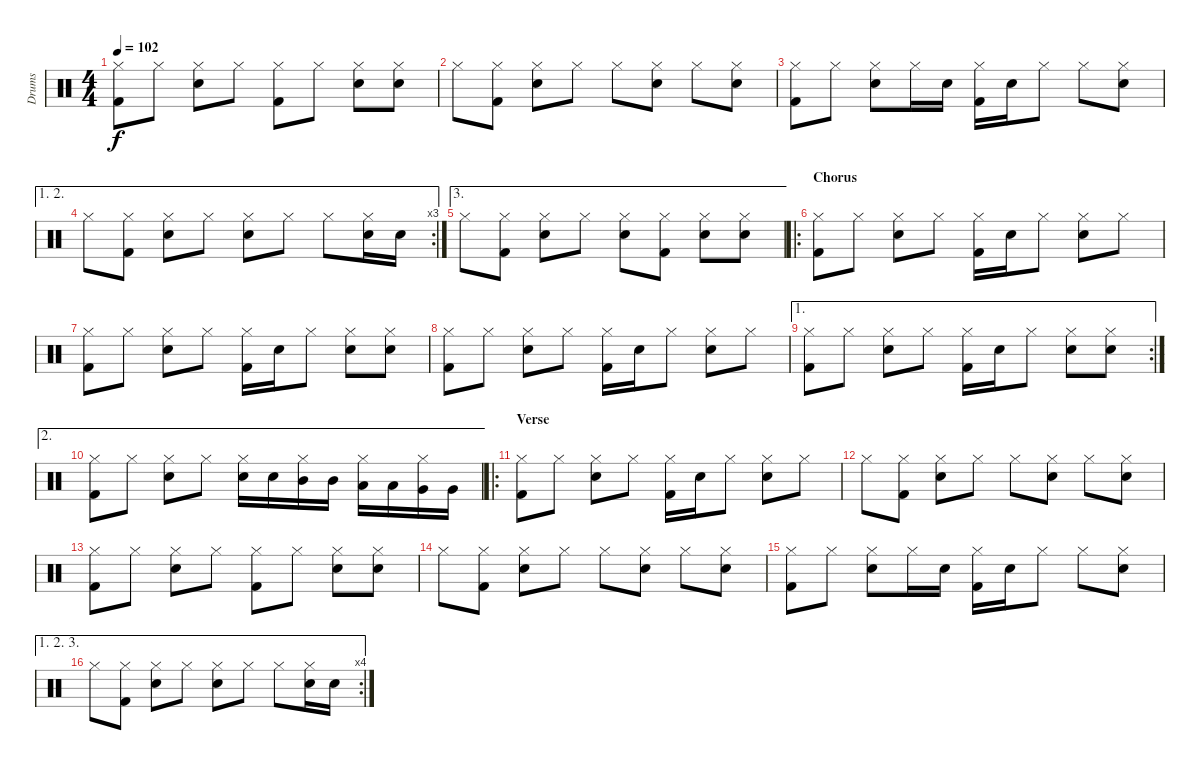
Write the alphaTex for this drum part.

\track ("Drums" "Drums") {instrument percussion}
\staff {score}
\articulation defaults
\ts (4 4)
\tempo 102
\clef neutral
\ks c
("Hi-Hat (closed)" "Kick (hit) 2").8{dy f} "Hi-Hat (closed)".8 ("Hi-Hat (closed)" "Electric Snare (hit)").8 "Hi-Hat (closed)".8 ("Hi-Hat (closed)" "Kick (hit) 2").8 "Hi-Hat (closed)".8 ("Hi-Hat (closed)" "Electric Snare (hit)").8 ("Hi-Hat (closed)" "Electric Snare (hit)").8 |
"Hi-Hat (closed)".8 ("Hi-Hat (closed)" "Kick (hit) 2").8 ("Hi-Hat (closed)" "Electric Snare (hit)").8 "Hi-Hat (closed)".8 "Hi-Hat (closed)".8 ("Hi-Hat (closed)" "Electric Snare (hit)").8 "Hi-Hat (closed)".8 ("Hi-Hat (closed)" "Electric Snare (hit)").8 |
("Hi-Hat (closed)" "Kick (hit) 2").8 "Hi-Hat (closed)".8 ("Hi-Hat (closed)" "Electric Snare (hit)").8 "Hi-Hat (closed)".16 "Electric Snare (hit)".16 ("Hi-Hat (closed)" "Kick (hit) 2").16 "Electric Snare (hit)".16 "Hi-Hat (closed)".8 "Hi-Hat (closed)".8 ("Hi-Hat (closed)" "Electric Snare (hit)").8 |
\ae (1 2)
\rc 3 "Hi-Hat (closed)".8
("Hi-Hat (closed)" "Kick (hit) 2").8 ("Hi-Hat (closed)" "Electric Snare (hit)").8 "Hi-Hat (closed)".8 ("Hi-Hat (closed)" "Electric Snare (hit)").8 "Hi-Hat (closed)".8 "Hi-Hat (closed)".8 ("Hi-Hat (closed)" "Electric Snare (hit)").16 "Electric Snare (hit)".16 |
\ae 3 "Hi-Hat (closed)".8
("Hi-Hat (closed)" "Kick (hit) 2").8 ("Hi-Hat (closed)" "Electric Snare (hit)").8 "Hi-Hat (closed)".8 ("Hi-Hat (closed)" "Electric Snare (hit)").8 ("Hi-Hat (closed)" "Kick (hit) 2").8 ("Hi-Hat (closed)" "Electric Snare (hit)").8 ("Hi-Hat (closed)" "Electric Snare (hit)").8 |
\ro
\section ("" "Chorus")
("Hi-Hat (closed)" "Kick (hit) 2").8 "Hi-Hat (closed)".8 ("Hi-Hat (closed)" "Electric Snare (hit)").8 "Hi-Hat (closed)".8 ("Hi-Hat (closed)" "Kick (hit) 2").16 "Electric Snare (hit)".16 "Hi-Hat (closed)".8 ("Hi-Hat (closed)" "Electric Snare (hit)").8 "Hi-Hat (closed)".8 |
("Hi-Hat (closed)" "Kick (hit) 2").8 "Hi-Hat (closed)".8 ("Hi-Hat (closed)" "Electric Snare (hit)").8 "Hi-Hat (closed)".8 ("Hi-Hat (closed)" "Kick (hit) 2").16 "Electric Snare (hit)".16 "Hi-Hat (closed)".8 ("Hi-Hat (closed)" "Electric Snare (hit)").8 ("Hi-Hat (closed)" "Electric Snare (hit)").8 |
("Hi-Hat (closed)" "Kick (hit) 2").8 "Hi-Hat (closed)".8 ("Hi-Hat (closed)" "Electric Snare (hit)").8 "Hi-Hat (closed)".8 ("Hi-Hat (closed)" "Kick (hit) 2").16 "Electric Snare (hit)".16 "Hi-Hat (closed)".8 ("Hi-Hat (closed)" "Electric Snare (hit)").8 "Hi-Hat (closed)".8 |
\ae 1
\rc 2
("Hi-Hat (closed)" "Kick (hit) 2").8 "Hi-Hat (closed)".8 ("Hi-Hat (closed)" "Electric Snare (hit)").8 "Hi-Hat (closed)".8 ("Hi-Hat (closed)" "Kick (hit) 2").16 "Electric Snare (hit)".16 "Hi-Hat (closed)".8 ("Hi-Hat (closed)" "Electric Snare (hit)").8 ("Hi-Hat (closed)" "Electric Snare (hit)").8 |
\ae 2
("Hi-Hat (closed)" "Kick (hit) 2").8 "Hi-Hat (closed)".8 ("Hi-Hat (closed)" "Electric Snare (hit)").8 "Hi-Hat (closed)".8 ("Hi-Hat (closed)" "Electric Snare (hit)").16 "Electric Snare (hit)".16 ("Hi-Hat (closed)" "Mid Tom (hit)").16 "Mid Tom (hit)".16 ("Hi-Hat (closed)" "Low Tom (hit)").16 "Low Tom (hit)".16 ("Hi-Hat (closed)" "Very Low Tom (hit)").16 "Very Low Tom (hit)".16 |
\ro
\section ("" "Verse")
("Hi-Hat (closed)" "Kick (hit) 2").8 "Hi-Hat (closed)".8 ("Hi-Hat (closed)" "Electric Snare (hit)").8 "Hi-Hat (closed)".8 ("Hi-Hat (closed)" "Kick (hit) 2").16 "Electric Snare (hit)".16 "Hi-Hat (closed)".8 ("Hi-Hat (closed)" "Electric Snare (hit)").8 "Hi-Hat (closed)".8 |
"Hi-Hat (closed)".8 ("Hi-Hat (closed)" "Kick (hit) 2").8 ("Hi-Hat (closed)" "Electric Snare (hit)").8 "Hi-Hat (closed)".8 "Hi-Hat (closed)".8 ("Hi-Hat (closed)" "Electric Snare (hit)").8 "Hi-Hat (closed)".8 ("Hi-Hat (closed)" "Electric Snare (hit)").8 |
("Hi-Hat (closed)" "Kick (hit) 2").8 "Hi-Hat (closed)".8 ("Hi-Hat (closed)" "Electric Snare (hit)").8 "Hi-Hat (closed)".8 ("Hi-Hat (closed)" "Kick (hit) 2").8 "Hi-Hat (closed)".8 ("Hi-Hat (closed)" "Electric Snare (hit)").8 ("Hi-Hat (closed)" "Electric Snare (hit)").8 |
"Hi-Hat (closed)".8 ("Hi-Hat (closed)" "Kick (hit) 2").8 ("Hi-Hat (closed)" "Electric Snare (hit)").8 "Hi-Hat (closed)".8 "Hi-Hat (closed)".8 ("Hi-Hat (closed)" "Electric Snare (hit)").8 "Hi-Hat (closed)".8 ("Hi-Hat (closed)" "Electric Snare (hit)").8 |
("Hi-Hat (closed)" "Kick (hit) 2").8 "Hi-Hat (closed)".8 ("Hi-Hat (closed)" "Electric Snare (hit)").8 "Hi-Hat (closed)".16 "Electric Snare (hit)".16 ("Hi-Hat (closed)" "Kick (hit) 2").16 "Electric Snare (hit)".16 "Hi-Hat (closed)".8 "Hi-Hat (closed)".8 ("Hi-Hat (closed)" "Electric Snare (hit)").8 |
\ae (1 2 3)
\rc 4 "Hi-Hat (closed)".8
("Hi-Hat (closed)" "Kick (hit) 2").8 ("Hi-Hat (closed)" "Electric Snare (hit)").8 "Hi-Hat (closed)".8 ("Hi-Hat (closed)" "Electric Snare (hit)").8 "Hi-Hat (closed)".8 "Hi-Hat (closed)".8 ("Hi-Hat (closed)" "Electric Snare (hit)").16 "Electric Snare (hit)".16
